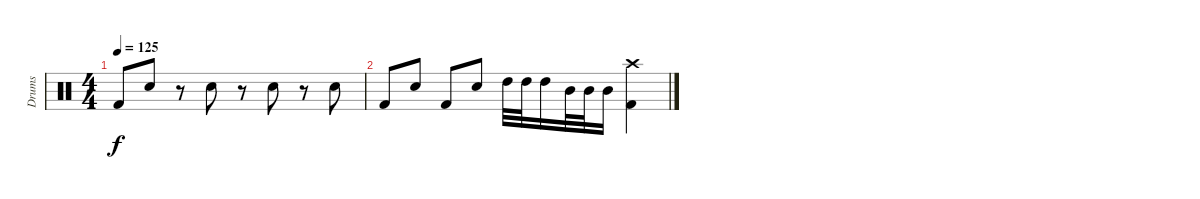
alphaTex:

\track ("Drums" "Drums") {instrument percussion}
\staff {score}
\articulation defaults
\ts (4 4)
\tempo 125
\clef neutral
\ks c "Kick (hit) 2".8{dy f} "Snare (hit) 2".8
r.8 "Snare (hit) 2".8 r.8 "Snare (hit) 2".8 r.8 "Snare (hit) 2".8 |
"Kick (hit) 2".8 "Snare (hit) 2".8 "Kick (hit) 2".8 "Snare (hit) 2".8 "High Tom (hit)".32 "High Tom (hit)".32 "High Tom (hit)".16 "Mid Tom (hit)".32 "Mid Tom (hit)".32 "Mid Tom (hit)".16 ("Crash high (hit)" "Kick (hit) 2").4
